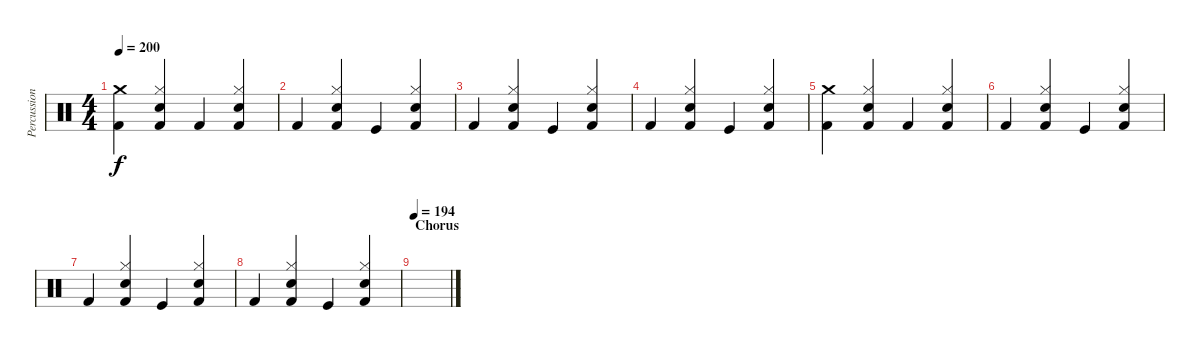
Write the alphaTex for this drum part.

\track ("Percussion" "Percussion") {instrument percussion}
\staff {score}
\articulation defaults
\ts (4 4)
\tempo 200
\clef neutral
\ks c
("Crash medium (hit)" "Kick (hit) 2").4{dy f} ("Hi-Hat (closed)" "Snare (hit) 2" "Kick (hit) 2").4 "Kick (hit) 2".4 ("Hi-Hat (closed)" "Snare (hit) 2" "Kick (hit) 2").4 |
"Kick (hit) 2".4 ("Hi-Hat (closed)" "Snare (hit) 2" "Kick (hit) 2").4 "Kick (hit)".4 ("Hi-Hat (closed)" "Snare (hit) 2" "Kick (hit) 2").4 |
"Kick (hit) 2".4 ("Hi-Hat (closed)" "Snare (hit) 2" "Kick (hit) 2").4 "Kick (hit)".4 ("Hi-Hat (closed)" "Snare (hit) 2" "Kick (hit) 2").4 |
"Kick (hit) 2".4 ("Hi-Hat (closed)" "Snare (hit) 2" "Kick (hit) 2").4 "Kick (hit)".4 ("Hi-Hat (closed)" "Snare (hit) 2" "Kick (hit) 2").4 |
("Crash medium (hit)" "Kick (hit) 2").4 ("Hi-Hat (closed)" "Snare (hit) 2" "Kick (hit) 2").4 "Kick (hit) 2".4 ("Hi-Hat (closed)" "Snare (hit) 2" "Kick (hit) 2").4 |
"Kick (hit) 2".4 ("Hi-Hat (closed)" "Snare (hit) 2" "Kick (hit) 2").4 "Kick (hit)".4 ("Hi-Hat (closed)" "Snare (hit) 2" "Kick (hit) 2").4 |
"Kick (hit) 2".4 ("Hi-Hat (closed)" "Snare (hit) 2" "Kick (hit) 2").4 "Kick (hit)".4 ("Hi-Hat (closed)" "Snare (hit) 2" "Kick (hit) 2").4 |
"Kick (hit) 2".4 ("Hi-Hat (closed)" "Snare (hit) 2" "Kick (hit) 2").4 "Kick (hit)".4 ("Hi-Hat (closed)" "Snare (hit) 2" "Kick (hit) 2").4 |
\section ("" "Chorus")
\tempo 194
